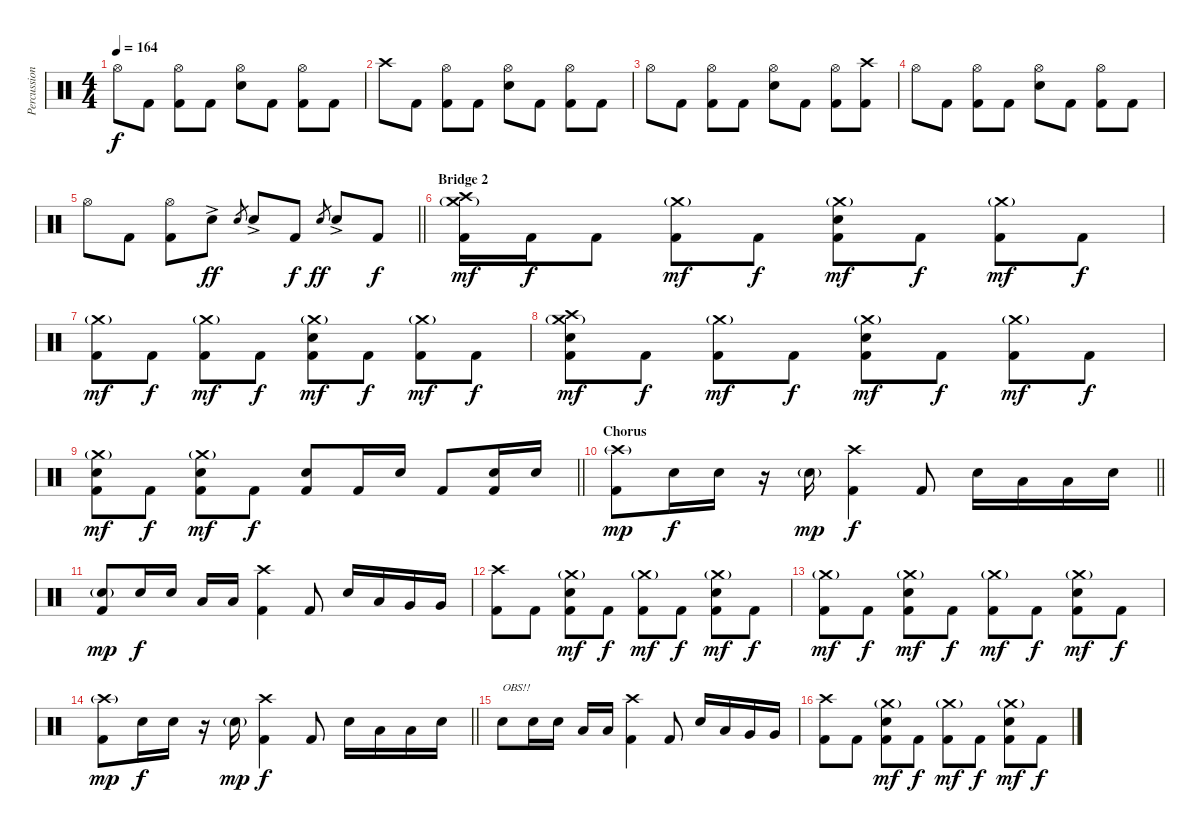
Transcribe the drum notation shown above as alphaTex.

\track ("Percussion - Michael Ambrose" "Percussion") {instrument percussion}
\staff {score}
\articulation defaults
\ts (4 4)
\tempo 164
\clef neutral
\ks c "Hi-Hat (open)".8{dy f} "Kick (hit) 2".8
("Hi-Hat (open)" "Kick (hit) 2").8 "Kick (hit) 2".8 ("Hi-Hat (open)" "Electric Snare (hit)").8 "Kick (hit) 2".8 ("Hi-Hat (open)" "Kick (hit) 2").8 "Kick (hit) 2".8 |
"Crash high (hit)".8 "Kick (hit) 2".8 ("Hi-Hat (open)" "Kick (hit) 2").8 "Kick (hit) 2".8 ("Hi-Hat (open)" "Electric Snare (hit)").8 "Kick (hit) 2".8 ("Hi-Hat (open)" "Kick (hit) 2").8 "Kick (hit) 2".8 |
"Hi-Hat (open)".8 "Kick (hit) 2".8 ("Hi-Hat (open)" "Kick (hit) 2").8 "Kick (hit) 2".8 ("Hi-Hat (open)" "Electric Snare (hit)").8 "Kick (hit) 2".8 ("Hi-Hat (open)" "Kick (hit) 2").8 ("Crash high (hit)" "Kick (hit) 2").8 |
"Hi-Hat (open)".8 "Kick (hit) 2".8 ("Hi-Hat (open)" "Kick (hit) 2").8 "Kick (hit) 2".8 ("Hi-Hat (open)" "Electric Snare (hit)").8 "Kick (hit) 2".8 ("Hi-Hat (open)" "Kick (hit) 2").8 "Kick (hit) 2".8 |
\barLineRight lightlight "Hi-Hat (open)".8 "Kick (hit) 2".8
("Hi-Hat (open)" "Kick (hit) 2").8 "Electric Snare (hit)"{ac}.8{dy ff} "Electric Snare (hit)".8{gr} "Electric Snare (hit)"{ac}.8 "Kick (hit) 2".8{dy f} "Electric Snare (hit)".8{gr dy ff} "Electric Snare (hit)"{ac}.8 "Kick (hit) 2".8{dy f} |
\section ("" "Bridge 2")
("Crash high (hit)" "Crash medium (hit)"{g} "Kick (hit) 2").16{dy mf} "Kick (hit) 2".16{dy f} "Kick (hit) 2".8 ("Crash medium (hit)"{g} "Kick (hit) 2").8{dy mf} "Kick (hit) 2".8{dy f} ("Crash medium (hit)"{g} "Electric Snare (hit)" "Kick (hit) 2").8{dy mf} "Kick (hit) 2".8{dy f} ("Crash medium (hit)"{g} "Kick (hit) 2").8{dy mf} "Kick (hit) 2".8{dy f} |
("Crash medium (hit)"{g} "Kick (hit) 2").8{dy mf} "Kick (hit) 2".8{dy f} ("Crash medium (hit)"{g} "Kick (hit) 2").8{dy mf} "Kick (hit) 2".8{dy f} ("Crash medium (hit)"{g} "Electric Snare (hit)" "Kick (hit) 2").8{dy mf} "Kick (hit) 2".8{dy f} ("Crash medium (hit)"{g} "Kick (hit) 2").8{dy mf} "Kick (hit) 2".8{dy f} |
("Crash high (hit)" "Crash medium (hit)"{g} "Electric Snare (hit)" "Kick (hit) 2").8{dy mf} "Kick (hit) 2".8{dy f} ("Crash medium (hit)"{g} "Kick (hit) 2").8{dy mf} "Kick (hit) 2".8{dy f} ("Crash medium (hit)"{g} "Electric Snare (hit)" "Kick (hit) 2").8{dy mf} "Kick (hit) 2".8{dy f} ("Crash medium (hit)"{g} "Kick (hit) 2").8{dy mf} "Kick (hit) 2".8{dy f} |
\barLineRight lightlight
("Crash medium (hit)"{g} "Electric Snare (hit)" "Kick (hit) 2").8{dy mf} "Kick (hit) 2".8{dy f} ("Crash medium (hit)"{g} "Electric Snare (hit)" "Kick (hit) 2").8{dy mf} "Kick (hit) 2".8{dy f} ("Electric Snare (hit)" "Kick (hit) 2").8 "Kick (hit) 2".16 "Electric Snare (hit)".16 "Kick (hit) 2".8 ("Electric Snare (hit)" "Kick (hit) 2").16 "Electric Snare (hit)".16 |
\section ("" "Chorus")
\barLineRight lightlight
("Crash high (hit)"{g} "Kick (hit) 2").8{dy mp} "Electric Snare (hit)".16{dy f} "Electric Snare (hit)".16 r.16 "Electric Snare (hit)"{g}.16{dy mp} ("Crash high (hit)" "Kick (hit) 2").4{dy f} "Kick (hit) 2".8 "Electric Snare (hit)".16 "Low Tom (hit)".16 "Low Tom (hit)".16 "Electric Snare (hit)".16 |
("Electric Snare (hit)"{g} "Kick (hit) 2").8{dy mp} "Electric Snare (hit)".16{dy f} "Electric Snare (hit)".16 "Low Tom (hit)".16 "Low Tom (hit)".16 ("Crash high (hit)" "Kick (hit) 2").4 "Kick (hit) 2".8 "Electric Snare (hit)".16 "Low Tom (hit)".16 "Very Low Tom (hit)".16 "Very Low Tom (hit)".16 |
("Crash high (hit)" "Kick (hit) 2").8 "Kick (hit) 2".8 ("Crash medium (hit)"{g} "Electric Snare (hit)" "Kick (hit) 2").8{dy mf} "Kick (hit) 2".8{dy f} ("Crash medium (hit)"{g} "Kick (hit) 2").8{dy mf} "Kick (hit) 2".8{dy f} ("Crash medium (hit)"{g} "Electric Snare (hit)" "Kick (hit) 2").8{dy mf} "Kick (hit) 2".8{dy f} |
("Crash medium (hit)"{g} "Kick (hit) 2").8{dy mf} "Kick (hit) 2".8{dy f} ("Crash medium (hit)"{g} "Electric Snare (hit)" "Kick (hit) 2").8{dy mf} "Kick (hit) 2".8{dy f} ("Crash medium (hit)"{g} "Kick (hit) 2").8{dy mf} "Kick (hit) 2".8{dy f} ("Crash medium (hit)"{g} "Electric Snare (hit)" "Kick (hit) 2").8{dy mf} "Kick (hit) 2".8{dy f} |
\barLineRight lightlight
("Crash high (hit)"{g} "Kick (hit) 2").8{dy mp} "Electric Snare (hit)".16{dy f} "Electric Snare (hit)".16 r.16 "Electric Snare (hit)"{g}.16{dy mp} ("Crash high (hit)" "Kick (hit) 2").4{dy f} "Kick (hit) 2".8 "Electric Snare (hit)".16 "Low Tom (hit)".16 "Low Tom (hit)".16 "Electric Snare (hit)".16 |
"Electric Snare (hit)".8{txt "OBS!!"} "Electric Snare (hit)".16 "Electric Snare (hit)".16 "Low Tom (hit)".16 "Low Tom (hit)".16 ("Crash high (hit)" "Kick (hit) 2").4 "Kick (hit) 2".8 "Electric Snare (hit)".16 "Low Tom (hit)".16 "Very Low Tom (hit)".16 "Very Low Tom (hit)".16 |
("Crash high (hit)" "Kick (hit) 2").8 "Kick (hit) 2".8 ("Crash medium (hit)"{g} "Electric Snare (hit)" "Kick (hit) 2").8{dy mf} "Kick (hit) 2".8{dy f} ("Crash medium (hit)"{g} "Kick (hit) 2").8{dy mf} "Kick (hit) 2".8{dy f} ("Crash medium (hit)"{g} "Electric Snare (hit)" "Kick (hit) 2").8{dy mf} "Kick (hit) 2".8{dy f}
